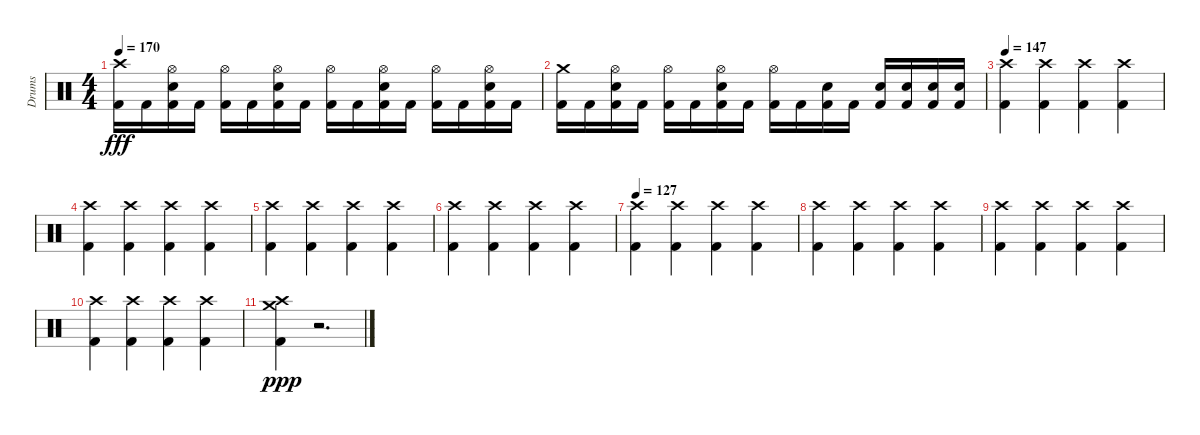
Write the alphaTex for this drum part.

\track ("Drums" "Drums") {instrument percussion}
\staff {score}
\articulation defaults
\ts (4 4)
\tempo 170
\clef neutral
\ks c
("Crash high (hit)" "Kick (hit) 2").16{dy fff} "Kick (hit) 2".16 ("Snare (hit) 2" "Hi-Hat (open)" "Kick (hit) 2").16 "Kick (hit) 2".16 ("Hi-Hat (open)" "Kick (hit) 2").16 "Kick (hit) 2".16 ("Snare (hit) 2" "Hi-Hat (open)" "Kick (hit) 2").16 "Kick (hit) 2".16 ("Hi-Hat (open)" "Kick (hit) 2").16 "Kick (hit) 2".16 ("Snare (hit) 2" "Hi-Hat (open)" "Kick (hit) 2").16 "Kick (hit) 2".16 ("Hi-Hat (open)" "Kick (hit) 2").16 "Kick (hit) 2".16 ("Snare (hit) 2" "Hi-Hat (open)" "Kick (hit) 2").16 "Kick (hit) 2".16 |
("Crash medium (hit)" "Kick (hit) 2").16 "Kick (hit) 2".16 ("Snare (hit) 2" "Hi-Hat (open)" "Kick (hit) 2").16 "Kick (hit) 2".16 ("Hi-Hat (open)" "Kick (hit) 2").16 "Kick (hit) 2".16 ("Snare (hit) 2" "Hi-Hat (open)" "Kick (hit) 2").16 "Kick (hit) 2".16 ("Hi-Hat (open)" "Kick (hit) 2").16 "Kick (hit) 2".16 ("Snare (hit) 2" "Kick (hit) 2").16 "Kick (hit) 2".16 ("Kick (hit) 2" "Snare (hit) 2").16 ("Kick (hit) 2" "Snare (hit) 2").16 ("Snare (hit) 2" "Kick (hit) 2").16 ("Kick (hit) 2" "Snare (hit) 2").16 |
\tempo 147
("Kick (hit) 2" "Crash high (hit)").4 ("Kick (hit) 2" "Crash high (hit)").4 ("Kick (hit) 2" "Crash high (hit)").4 ("Kick (hit) 2" "Crash high (hit)").4 |
("Kick (hit) 2" "Crash high (hit)").4 ("Kick (hit) 2" "Crash high (hit)").4 ("Kick (hit) 2" "Crash high (hit)").4 ("Kick (hit) 2" "Crash high (hit)").4 |
("Kick (hit) 2" "Crash high (hit)").4 ("Kick (hit) 2" "Crash high (hit)").4 ("Kick (hit) 2" "Crash high (hit)").4 ("Kick (hit) 2" "Crash high (hit)").4 |
("Kick (hit) 2" "Crash high (hit)").4 ("Kick (hit) 2" "Crash high (hit)").4 ("Kick (hit) 2" "Crash high (hit)").4 ("Kick (hit) 2" "Crash high (hit)").4 |
\tempo 127
("Kick (hit) 2" "Crash high (hit)").4 ("Kick (hit) 2" "Crash high (hit)").4 ("Kick (hit) 2" "Crash high (hit)").4 ("Kick (hit) 2" "Crash high (hit)").4 |
("Kick (hit) 2" "Crash high (hit)").4 ("Kick (hit) 2" "Crash high (hit)").4 ("Kick (hit) 2" "Crash high (hit)").4 ("Kick (hit) 2" "Crash high (hit)").4 |
("Kick (hit) 2" "Crash high (hit)").4 ("Kick (hit) 2" "Crash high (hit)").4 ("Kick (hit) 2" "Crash high (hit)").4 ("Kick (hit) 2" "Crash high (hit)").4 |
("Kick (hit) 2" "Crash high (hit)").4 ("Kick (hit) 2" "Crash high (hit)").4 ("Kick (hit) 2" "Crash high (hit)").4 ("Kick (hit) 2" "Crash high (hit)").4 |
("Crash medium (hit)" "Kick (hit) 2" "Crash high (hit)").4{dy ppp} r.2{d}
